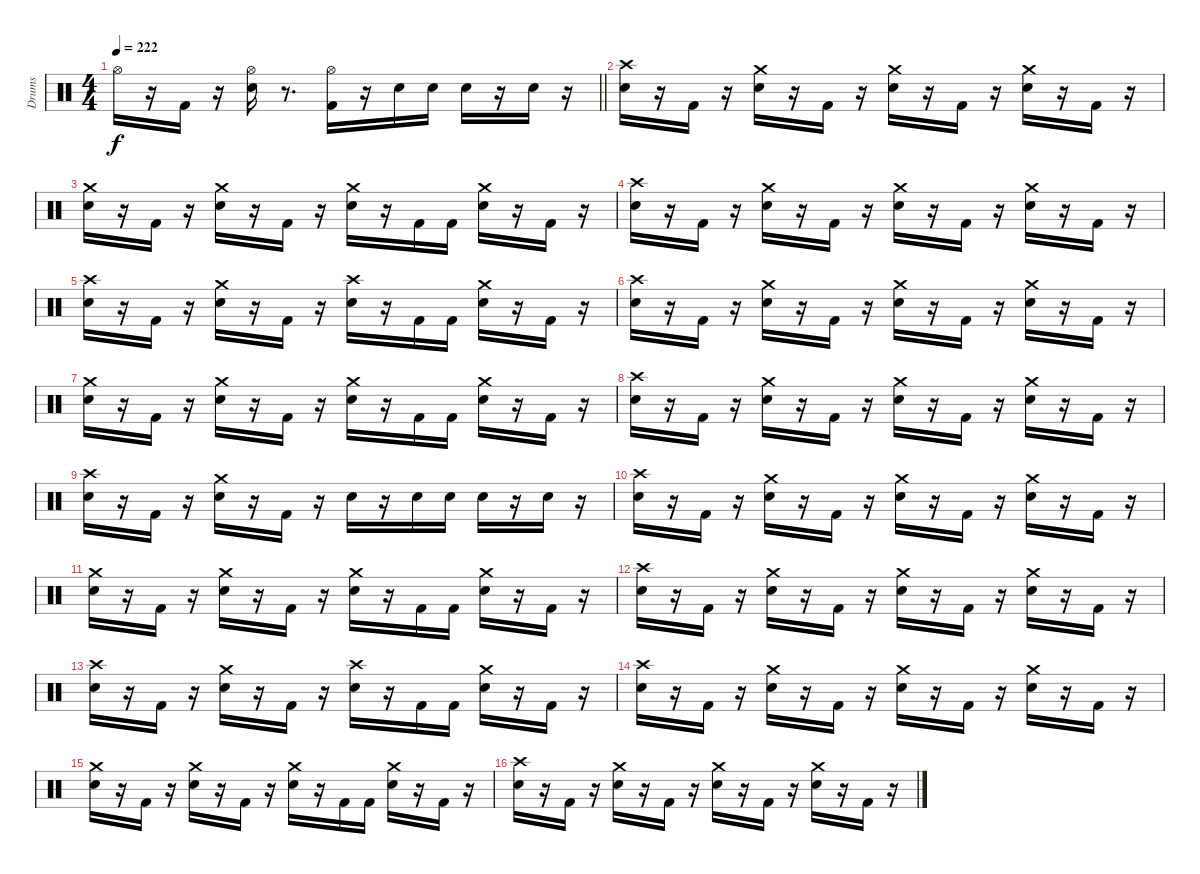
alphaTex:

\track ("Drums" "Drums") {instrument percussion}
\staff {score}
\articulation defaults
\ts (4 4)
\tempo 222
\clef neutral
\barLineRight lightlight
\ks c "Hi-Hat (open)".16{dy f}
r.16 "Kick (hit) 2".16 r.16 ("Snare (hit) 2" "Hi-Hat (open)").16 r.8{d} ("Kick (hit) 2" "Hi-Hat (open)").16 r.16 "Snare (hit) 2".16 "Snare (hit) 2".16 "Snare (hit) 2".16 r.16 "Snare (hit) 2".16 r.16 |
\section ("" " ")
("Snare (hit) 2" "Crash high (hit)").16 r.16 "Kick (hit) 2".16 r.16 ("Snare (hit) 2" "Crash medium (hit)").16 r.16 "Kick (hit) 2".16 r.16 ("Snare (hit) 2" "Crash medium (hit)").16 r.16 "Kick (hit) 2".16 r.16 ("Snare (hit) 2" "Crash medium (hit)").16 r.16 "Kick (hit) 2".16 r.16 |
("Snare (hit) 2" "Crash medium (hit)").16 r.16 "Kick (hit) 2".16 r.16 ("Snare (hit) 2" "Crash medium (hit)").16 r.16 "Kick (hit) 2".16 r.16 ("Snare (hit) 2" "Crash medium (hit)").16 r.16 "Kick (hit) 2".16 "Kick (hit) 2".16 ("Snare (hit) 2" "Crash medium (hit)").16 r.16 "Kick (hit) 2".16 r.16 |
("Snare (hit) 2" "Crash high (hit)").16 r.16 "Kick (hit) 2".16 r.16 ("Snare (hit) 2" "Crash medium (hit)").16 r.16 "Kick (hit) 2".16 r.16 ("Snare (hit) 2" "Crash medium (hit)").16 r.16 "Kick (hit) 2".16 r.16 ("Snare (hit) 2" "Crash medium (hit)").16 r.16 "Kick (hit) 2".16 r.16 |
("Snare (hit) 2" "Crash high (hit)").16 r.16 "Kick (hit) 2".16 r.16 ("Snare (hit) 2" "Crash medium (hit)").16 r.16 "Kick (hit) 2".16 r.16 ("Snare (hit) 2" "Crash high (hit)").16 r.16 "Kick (hit) 2".16 "Kick (hit) 2".16 ("Snare (hit) 2" "Crash medium (hit)").16 r.16 "Kick (hit) 2".16 r.16 |
("Snare (hit) 2" "Crash high (hit)").16 r.16 "Kick (hit) 2".16 r.16 ("Snare (hit) 2" "Crash medium (hit)").16 r.16 "Kick (hit) 2".16 r.16 ("Snare (hit) 2" "Crash medium (hit)").16 r.16 "Kick (hit) 2".16 r.16 ("Snare (hit) 2" "Crash medium (hit)").16 r.16 "Kick (hit) 2".16 r.16 |
("Snare (hit) 2" "Crash medium (hit)").16 r.16 "Kick (hit) 2".16 r.16 ("Snare (hit) 2" "Crash medium (hit)").16 r.16 "Kick (hit) 2".16 r.16 ("Snare (hit) 2" "Crash medium (hit)").16 r.16 "Kick (hit) 2".16 "Kick (hit) 2".16 ("Snare (hit) 2" "Crash medium (hit)").16 r.16 "Kick (hit) 2".16 r.16 |
("Snare (hit) 2" "Crash high (hit)").16 r.16 "Kick (hit) 2".16 r.16 ("Snare (hit) 2" "Crash medium (hit)").16 r.16 "Kick (hit) 2".16 r.16 ("Snare (hit) 2" "Crash medium (hit)").16 r.16 "Kick (hit) 2".16 r.16 ("Snare (hit) 2" "Crash medium (hit)").16 r.16 "Kick (hit) 2".16 r.16 |
("Snare (hit) 2" "Crash high (hit)").16 r.16 "Kick (hit) 2".16 r.16 ("Snare (hit) 2" "Crash medium (hit)").16 r.16 "Kick (hit) 2".16 r.16 "Snare (hit) 2".16 r.16 "Snare (hit) 2".16 "Snare (hit) 2".16 "Snare (hit) 2".16 r.16 "Snare (hit) 2".16 r.16 |
("Snare (hit) 2" "Crash high (hit)").16 r.16 "Kick (hit) 2".16 r.16 ("Snare (hit) 2" "Crash medium (hit)").16 r.16 "Kick (hit) 2".16 r.16 ("Snare (hit) 2" "Crash medium (hit)").16 r.16 "Kick (hit) 2".16 r.16 ("Snare (hit) 2" "Crash medium (hit)").16 r.16 "Kick (hit) 2".16 r.16 |
("Snare (hit) 2" "Crash medium (hit)").16 r.16 "Kick (hit) 2".16 r.16 ("Snare (hit) 2" "Crash medium (hit)").16 r.16 "Kick (hit) 2".16 r.16 ("Snare (hit) 2" "Crash medium (hit)").16 r.16 "Kick (hit) 2".16 "Kick (hit) 2".16 ("Snare (hit) 2" "Crash medium (hit)").16 r.16 "Kick (hit) 2".16 r.16 |
("Snare (hit) 2" "Crash high (hit)").16 r.16 "Kick (hit) 2".16 r.16 ("Snare (hit) 2" "Crash medium (hit)").16 r.16 "Kick (hit) 2".16 r.16 ("Snare (hit) 2" "Crash medium (hit)").16 r.16 "Kick (hit) 2".16 r.16 ("Snare (hit) 2" "Crash medium (hit)").16 r.16 "Kick (hit) 2".16 r.16 |
("Snare (hit) 2" "Crash high (hit)").16 r.16 "Kick (hit) 2".16 r.16 ("Snare (hit) 2" "Crash medium (hit)").16 r.16 "Kick (hit) 2".16 r.16 ("Snare (hit) 2" "Crash high (hit)").16 r.16 "Kick (hit) 2".16 "Kick (hit) 2".16 ("Snare (hit) 2" "Crash medium (hit)").16 r.16 "Kick (hit) 2".16 r.16 |
("Snare (hit) 2" "Crash high (hit)").16 r.16 "Kick (hit) 2".16 r.16 ("Snare (hit) 2" "Crash medium (hit)").16 r.16 "Kick (hit) 2".16 r.16 ("Snare (hit) 2" "Crash medium (hit)").16 r.16 "Kick (hit) 2".16 r.16 ("Snare (hit) 2" "Crash medium (hit)").16 r.16 "Kick (hit) 2".16 r.16 |
("Snare (hit) 2" "Crash medium (hit)").16 r.16 "Kick (hit) 2".16 r.16 ("Snare (hit) 2" "Crash medium (hit)").16 r.16 "Kick (hit) 2".16 r.16 ("Snare (hit) 2" "Crash medium (hit)").16 r.16 "Kick (hit) 2".16 "Kick (hit) 2".16 ("Snare (hit) 2" "Crash medium (hit)").16 r.16 "Kick (hit) 2".16 r.16 |
("Snare (hit) 2" "Crash high (hit)").16 r.16 "Kick (hit) 2".16 r.16 ("Snare (hit) 2" "Crash medium (hit)").16 r.16 "Kick (hit) 2".16 r.16 ("Snare (hit) 2" "Crash medium (hit)").16 r.16 "Kick (hit) 2".16 r.16 ("Snare (hit) 2" "Crash medium (hit)").16 r.16 "Kick (hit) 2".16 r.16
